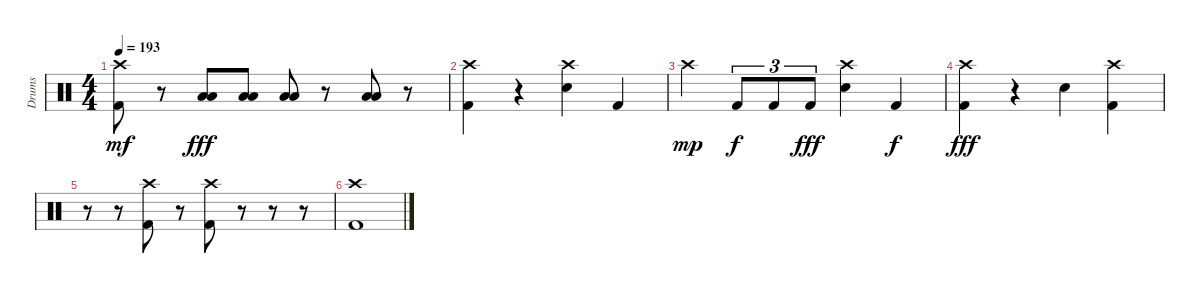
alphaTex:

\track ("Drums" "Drums") {instrument percussion}
\staff {score}
\articulation defaults
\ts (4 4)
\tempo 193
\clef neutral
\ks c
("Crash high (hit)" "Kick (hit) 2").8{dy mf} r.8 ("Low Tom (hit)" "Low Floor Tom (hit)").8{dy fff} ("Low Tom (hit)" "Low Floor Tom (hit)").8 ("Low Tom (hit)" "Low Floor Tom (hit)").8 r.8 ("Low Tom (hit)" "Low Floor Tom (hit)").8 r.8 |
("Crash high (hit)" "Kick (hit) 2").4 r.4 ("Crash high (hit)" "Snare (hit) 2").4 "Kick (hit) 2".4 |
"Crash high (hit)".4{dy mp} "Kick (hit) 2".8{tu (3 2) dy f} "Kick (hit) 2".8{tu (3 2)} "Kick (hit) 2".8{tu (3 2) dy fff} ("Crash high (hit)" "Snare (hit) 2").4 "Kick (hit) 2".4{dy f} |
("Crash high (hit)" "Kick (hit) 2").4{dy fff} r.4 "Snare (hit) 2".4 ("Crash high (hit)" "Kick (hit) 2").4 |
r.8 r.8 ("Crash high (hit)" "Kick (hit) 2").8 r.8 ("Crash high (hit)" "Kick (hit) 2").8 r.8 r.8 r.8 |
("Crash high (hit)" "Kick (hit) 2").1
